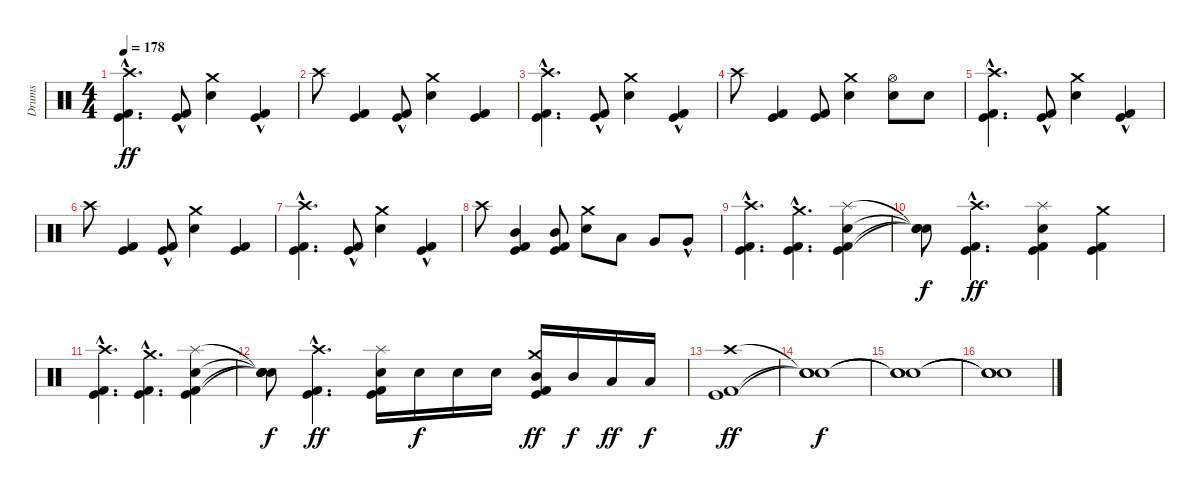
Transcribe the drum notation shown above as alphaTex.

\track ("Drums" "Drums") {instrument percussion}
\staff {score}
\articulation defaults
\ts (4 4)
\tempo 178
\clef neutral
\ks c
("Kick (hit)"{hac} "Kick (hit) 2"{hac} "Crash high (hit)").4{d dy ff} ("Kick (hit)"{hac} "Kick (hit) 2"{hac}).8 ("Electric Snare (hit)" "Crash medium (hit)").4 ("Kick (hit)"{hac} "Kick (hit) 2"{hac}).4 |
"Crash high (hit)".8 ("Kick (hit)" "Kick (hit) 2").4 ("Kick (hit)"{hac} "Kick (hit) 2"{hac}).8 ("Electric Snare (hit)" "Crash medium (hit)").4 ("Kick (hit)" "Kick (hit) 2").4 |
("Kick (hit)"{hac} "Kick (hit) 2"{hac} "Crash high (hit)").4{d} ("Kick (hit)"{hac} "Kick (hit) 2"{hac}).8 ("Electric Snare (hit)" "Crash medium (hit)").4 ("Kick (hit)"{hac} "Kick (hit) 2"{hac}).4 |
"Crash high (hit)".8 ("Kick (hit)" "Kick (hit) 2").4 ("Kick (hit)" "Kick (hit) 2").8 ("Electric Snare (hit)" "Crash medium (hit)").4 ("Electric Snare (hit)" "Hi-Hat (open)").8 "Electric Snare (hit)".8 |
("Kick (hit)"{hac} "Kick (hit) 2"{hac} "Crash high (hit)").4{d} ("Kick (hit)"{hac} "Kick (hit) 2"{hac}).8 ("Electric Snare (hit)" "Crash medium (hit)").4 ("Kick (hit)"{hac} "Kick (hit) 2"{hac}).4 |
"Crash high (hit)".8 ("Kick (hit)" "Kick (hit) 2").4 ("Kick (hit)"{hac} "Kick (hit) 2"{hac}).8 ("Electric Snare (hit)" "Crash medium (hit)").4 ("Kick (hit)" "Kick (hit) 2").4 |
("Kick (hit)"{hac} "Kick (hit) 2"{hac} "Crash high (hit)").4{d} ("Kick (hit)"{hac} "Kick (hit) 2"{hac}).8 ("Electric Snare (hit)" "Crash medium (hit)").4 ("Kick (hit)"{hac} "Kick (hit) 2"{hac}).4 |
"Crash high (hit)".8 ("Kick (hit)" "Kick (hit) 2" "Mid Tom (hit)").4 ("Kick (hit)" "Kick (hit) 2" "Mid Tom (hit)").8 ("Electric Snare (hit)" "Crash medium (hit)").8 "Low Tom (hit)".8 "Very Low Tom (hit)".8 "Very Low Tom (hit)"{hac}.8 |
("Kick (hit)"{hac} "Kick (hit) 2"{hac} "Crash high (hit)"{hac}).4{d} ("Kick (hit)"{hac} "Kick (hit) 2"{hac} "Crash medium (hit)"{hac}).4{d} ("Kick (hit)" "Kick (hit) 2" "Electric Snare (hit)" "Splash (hit)").4 |
("Snare (hit)"{t} "Snare (hit)"{t} "Snare (hit)"{t} "Snare (hit)"{t}).8{dy f} ("Kick (hit)"{hac} "Kick (hit) 2"{hac} "Crash high (hit)"{hac}).4{d dy ff} ("Kick (hit)" "Kick (hit) 2" "Electric Snare (hit)" "Splash (hit)").4 ("Kick (hit)" "Kick (hit) 2" "Crash medium (hit)").4 |
("Kick (hit)"{hac} "Kick (hit) 2"{hac} "Crash high (hit)"{hac}).4{d} ("Kick (hit)"{hac} "Kick (hit) 2"{hac} "Crash medium (hit)"{hac}).4{d} ("Kick (hit)" "Kick (hit) 2" "Electric Snare (hit)" "Splash (hit)").4 |
("Snare (hit)"{t} "Snare (hit)"{t} "Snare (hit)"{t} "Snare (hit)"{t}).8{dy f} ("Kick (hit)"{hac} "Kick (hit) 2"{hac} "Crash high (hit)"{hac}).4{d dy ff} ("Kick (hit)" "Kick (hit) 2" "Electric Snare (hit)" "Splash (hit)").16 "Electric Snare (hit)".16{dy f} "Electric Snare (hit)".16 "Electric Snare (hit)".16 ("Kick (hit)" "Kick (hit) 2" "Mid Tom (hit)" "Crash medium (hit)").16{dy ff} "Mid Tom (hit)".16{dy f} "Low Tom (hit)".16{dy ff} "Low Tom (hit)".16{dy f} |
("Kick (hit)" "Kick (hit) 2" "Crash high (hit)").1{dy ff} |
("Snare (hit)"{t} "Snare (hit)"{t} "Snare (hit)"{t}).1{dy f} |
("Snare (hit)"{t} "Snare (hit)"{t} "Snare (hit)"{t}).1 |
("Snare (hit)"{t} "Snare (hit)"{t} "Snare (hit)"{t}).1
